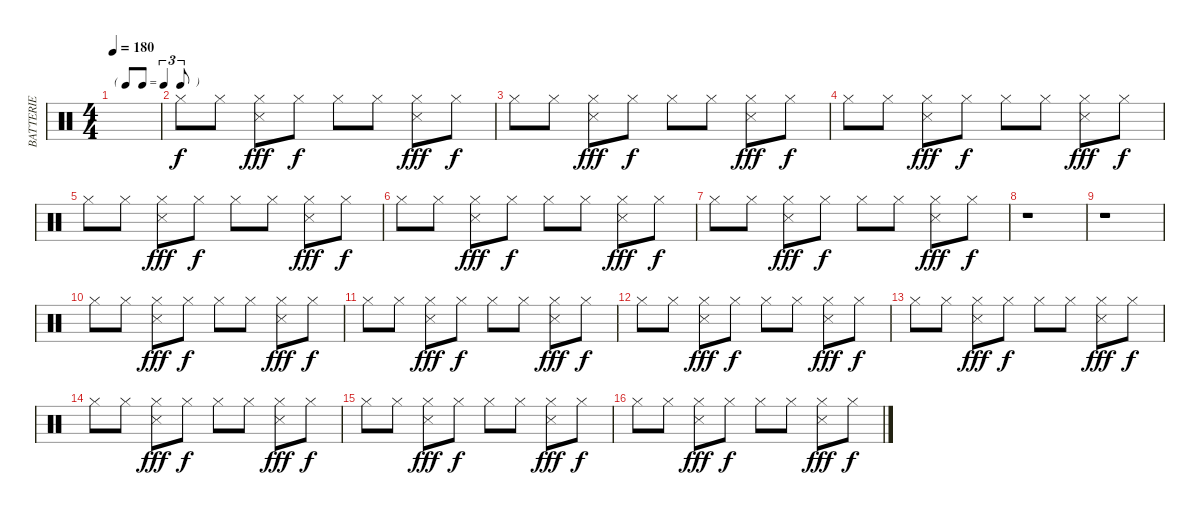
\track ("BATTERIE" "BATTERIE") {instrument percussion}
\staff {score}
\articulation defaults
\ts (4 4)
\tf triplet8th
\tempo 180
\clef neutral
\ks c
|
"Hi-Hat (closed)".8 "Hi-Hat (closed)".8 ("Hi-Hat (closed)" "Snare (side stick) 3").8{dy fff} "Hi-Hat (closed)".8{dy f} "Hi-Hat (closed)".8 "Hi-Hat (closed)".8 ("Hi-Hat (closed)" "Snare (side stick) 3").8{dy fff} "Hi-Hat (closed)".8{dy f} |
"Hi-Hat (closed)".8 "Hi-Hat (closed)".8 ("Hi-Hat (closed)" "Snare (side stick) 3").8{dy fff} "Hi-Hat (closed)".8{dy f} "Hi-Hat (closed)".8 "Hi-Hat (closed)".8 ("Hi-Hat (closed)" "Snare (side stick) 3").8{dy fff} "Hi-Hat (closed)".8{dy f} |
"Hi-Hat (closed)".8 "Hi-Hat (closed)".8 ("Hi-Hat (closed)" "Snare (side stick) 3").8{dy fff} "Hi-Hat (closed)".8{dy f} "Hi-Hat (closed)".8 "Hi-Hat (closed)".8 ("Hi-Hat (closed)" "Snare (side stick) 3").8{dy fff} "Hi-Hat (closed)".8{dy f} |
"Hi-Hat (closed)".8 "Hi-Hat (closed)".8 ("Hi-Hat (closed)" "Snare (side stick) 3").8{dy fff} "Hi-Hat (closed)".8{dy f} "Hi-Hat (closed)".8 "Hi-Hat (closed)".8 ("Hi-Hat (closed)" "Snare (side stick) 3").8{dy fff} "Hi-Hat (closed)".8{dy f} |
"Hi-Hat (closed)".8 "Hi-Hat (closed)".8 ("Hi-Hat (closed)" "Snare (side stick) 3").8{dy fff} "Hi-Hat (closed)".8{dy f} "Hi-Hat (closed)".8 "Hi-Hat (closed)".8 ("Hi-Hat (closed)" "Snare (side stick) 3").8{dy fff} "Hi-Hat (closed)".8{dy f} |
"Hi-Hat (closed)".8 "Hi-Hat (closed)".8 ("Hi-Hat (closed)" "Snare (side stick) 3").8{dy fff} "Hi-Hat (closed)".8{dy f} "Hi-Hat (closed)".8 "Hi-Hat (closed)".8 ("Hi-Hat (closed)" "Snare (side stick) 3").8{dy fff} "Hi-Hat (closed)".8{dy f} |
r.1 |
r.1 |
"Hi-Hat (closed)".8 "Hi-Hat (closed)".8 ("Hi-Hat (closed)" "Snare (side stick) 3").8{dy fff} "Hi-Hat (closed)".8{dy f} "Hi-Hat (closed)".8 "Hi-Hat (closed)".8 ("Hi-Hat (closed)" "Snare (side stick) 3").8{dy fff} "Hi-Hat (closed)".8{dy f} |
"Hi-Hat (closed)".8 "Hi-Hat (closed)".8 ("Hi-Hat (closed)" "Snare (side stick) 3").8{dy fff} "Hi-Hat (closed)".8{dy f} "Hi-Hat (closed)".8 "Hi-Hat (closed)".8 ("Hi-Hat (closed)" "Snare (side stick) 3").8{dy fff} "Hi-Hat (closed)".8{dy f} |
"Hi-Hat (closed)".8 "Hi-Hat (closed)".8 ("Hi-Hat (closed)" "Snare (side stick) 3").8{dy fff} "Hi-Hat (closed)".8{dy f} "Hi-Hat (closed)".8 "Hi-Hat (closed)".8 ("Hi-Hat (closed)" "Snare (side stick) 3").8{dy fff} "Hi-Hat (closed)".8{dy f} |
"Hi-Hat (closed)".8 "Hi-Hat (closed)".8 ("Hi-Hat (closed)" "Snare (side stick) 3").8{dy fff} "Hi-Hat (closed)".8{dy f} "Hi-Hat (closed)".8 "Hi-Hat (closed)".8 ("Hi-Hat (closed)" "Snare (side stick) 3").8{dy fff} "Hi-Hat (closed)".8{dy f} |
"Hi-Hat (closed)".8 "Hi-Hat (closed)".8 ("Hi-Hat (closed)" "Snare (side stick) 3").8{dy fff} "Hi-Hat (closed)".8{dy f} "Hi-Hat (closed)".8 "Hi-Hat (closed)".8 ("Hi-Hat (closed)" "Snare (side stick) 3").8{dy fff} "Hi-Hat (closed)".8{dy f} |
"Hi-Hat (closed)".8 "Hi-Hat (closed)".8 ("Hi-Hat (closed)" "Snare (side stick) 3").8{dy fff} "Hi-Hat (closed)".8{dy f} "Hi-Hat (closed)".8 "Hi-Hat (closed)".8 ("Hi-Hat (closed)" "Snare (side stick) 3").8{dy fff} "Hi-Hat (closed)".8{dy f} |
"Hi-Hat (closed)".8 "Hi-Hat (closed)".8 ("Hi-Hat (closed)" "Snare (side stick) 3").8{dy fff} "Hi-Hat (closed)".8{dy f} "Hi-Hat (closed)".8 "Hi-Hat (closed)".8 ("Hi-Hat (closed)" "Snare (side stick) 3").8{dy fff} "Hi-Hat (closed)".8{dy f}
